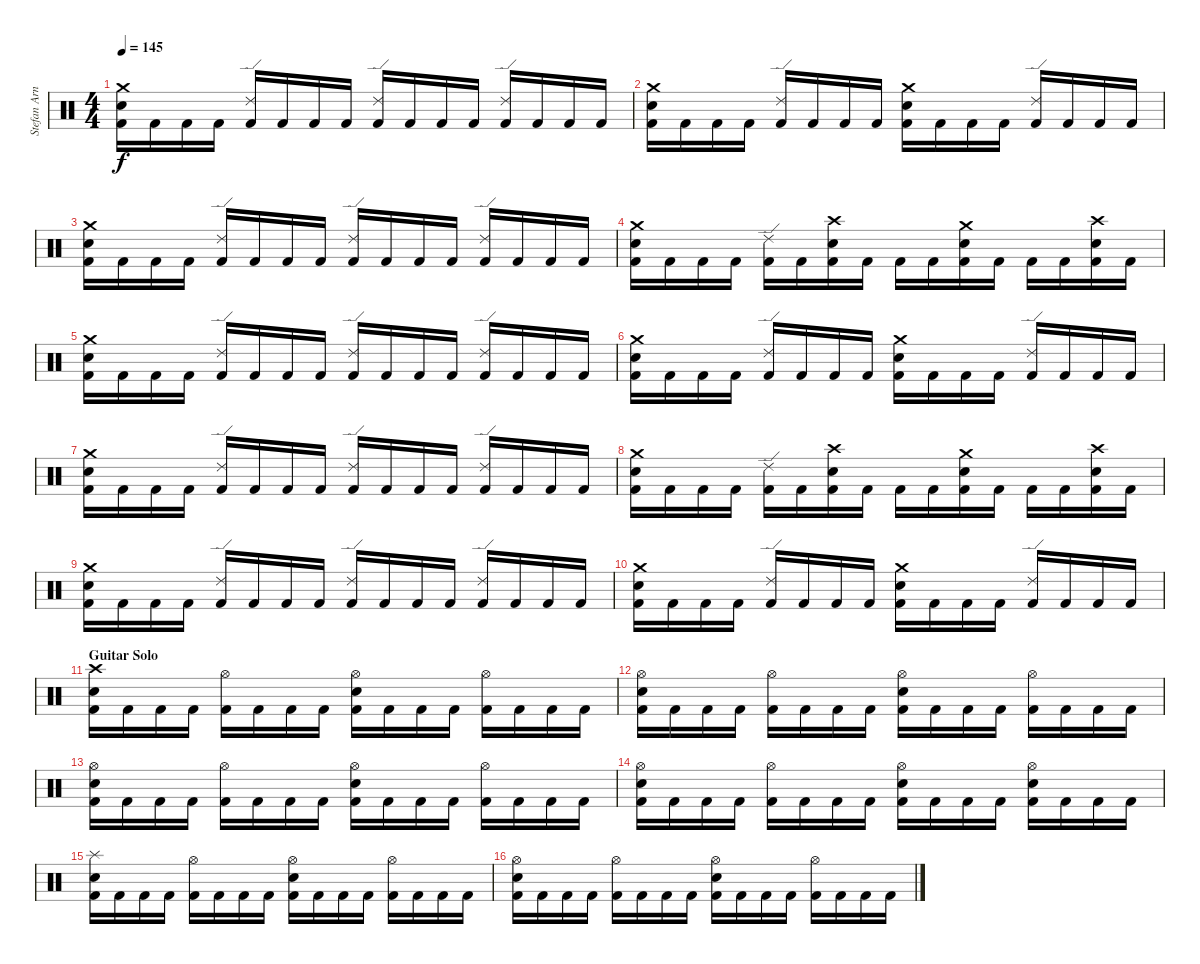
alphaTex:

\track ("Stefan Arnold" "Stefan Arn") {instrument percussion}
\staff {score}
\articulation defaults
\ts (4 4)
\tempo 145
\clef neutral
\ks c
("Crash medium (hit)" "Electric Snare (hit)" "Kick (hit) 2").16{dy f} "Kick (hit) 2".16 "Kick (hit) 2".16 "Kick (hit) 2".16 ("Ride (edge) 2" "Kick (hit) 2").16 "Kick (hit) 2".16 "Kick (hit) 2".16 "Kick (hit) 2".16 ("Ride (edge) 2" "Kick (hit) 2").16 "Kick (hit) 2".16 "Kick (hit) 2".16 "Kick (hit) 2".16 ("Ride (edge) 2" "Kick (hit) 2").16 "Kick (hit) 2".16 "Kick (hit) 2".16 "Kick (hit) 2".16 |
("Crash medium (hit)" "Electric Snare (hit)" "Kick (hit) 2").16 "Kick (hit) 2".16 "Kick (hit) 2".16 "Kick (hit) 2".16 ("Ride (edge) 2" "Kick (hit) 2").16 "Kick (hit) 2".16 "Kick (hit) 2".16 "Kick (hit) 2".16 ("Crash medium (hit)" "Electric Snare (hit)" "Kick (hit) 2").16 "Kick (hit) 2".16 "Kick (hit) 2".16 "Kick (hit) 2".16 ("Ride (edge) 2" "Kick (hit) 2").16 "Kick (hit) 2".16 "Kick (hit) 2".16 "Kick (hit) 2".16 |
("Crash medium (hit)" "Electric Snare (hit)" "Kick (hit) 2").16 "Kick (hit) 2".16 "Kick (hit) 2".16 "Kick (hit) 2".16 ("Ride (edge) 2" "Kick (hit) 2").16 "Kick (hit) 2".16 "Kick (hit) 2".16 "Kick (hit) 2".16 ("Ride (edge) 2" "Kick (hit) 2").16 "Kick (hit) 2".16 "Kick (hit) 2".16 "Kick (hit) 2".16 ("Ride (edge) 2" "Kick (hit) 2").16 "Kick (hit) 2".16 "Kick (hit) 2".16 "Kick (hit) 2".16 |
("Crash medium (hit)" "Electric Snare (hit)" "Kick (hit) 2").16 "Kick (hit) 2".16 "Kick (hit) 2".16 "Kick (hit) 2".16 ("Ride (edge) 2" "Kick (hit) 2").16 "Kick (hit) 2".16 ("Crash high (hit)" "Electric Snare (hit)" "Kick (hit) 2").16 "Kick (hit) 2".16 "Kick (hit) 2".16 "Kick (hit) 2".16 ("Crash medium (hit)" "Electric Snare (hit)" "Kick (hit) 2").16 "Kick (hit) 2".16 "Kick (hit) 2".16 "Kick (hit) 2".16 ("Crash high (hit)" "Electric Snare (hit)" "Kick (hit) 2").16 "Kick (hit) 2".16 |
("Crash medium (hit)" "Electric Snare (hit)" "Kick (hit) 2").16 "Kick (hit) 2".16 "Kick (hit) 2".16 "Kick (hit) 2".16 ("Ride (edge) 2" "Kick (hit) 2").16 "Kick (hit) 2".16 "Kick (hit) 2".16 "Kick (hit) 2".16 ("Ride (edge) 2" "Kick (hit) 2").16 "Kick (hit) 2".16 "Kick (hit) 2".16 "Kick (hit) 2".16 ("Ride (edge) 2" "Kick (hit) 2").16 "Kick (hit) 2".16 "Kick (hit) 2".16 "Kick (hit) 2".16 |
("Crash medium (hit)" "Electric Snare (hit)" "Kick (hit) 2").16 "Kick (hit) 2".16 "Kick (hit) 2".16 "Kick (hit) 2".16 ("Ride (edge) 2" "Kick (hit) 2").16 "Kick (hit) 2".16 "Kick (hit) 2".16 "Kick (hit) 2".16 ("Crash medium (hit)" "Electric Snare (hit)" "Kick (hit) 2").16 "Kick (hit) 2".16 "Kick (hit) 2".16 "Kick (hit) 2".16 ("Ride (edge) 2" "Kick (hit) 2").16 "Kick (hit) 2".16 "Kick (hit) 2".16 "Kick (hit) 2".16 |
("Crash medium (hit)" "Electric Snare (hit)" "Kick (hit) 2").16 "Kick (hit) 2".16 "Kick (hit) 2".16 "Kick (hit) 2".16 ("Ride (edge) 2" "Kick (hit) 2").16 "Kick (hit) 2".16 "Kick (hit) 2".16 "Kick (hit) 2".16 ("Ride (edge) 2" "Kick (hit) 2").16 "Kick (hit) 2".16 "Kick (hit) 2".16 "Kick (hit) 2".16 ("Ride (edge) 2" "Kick (hit) 2").16 "Kick (hit) 2".16 "Kick (hit) 2".16 "Kick (hit) 2".16 |
("Crash medium (hit)" "Electric Snare (hit)" "Kick (hit) 2").16 "Kick (hit) 2".16 "Kick (hit) 2".16 "Kick (hit) 2".16 ("Ride (edge) 2" "Kick (hit) 2").16 "Kick (hit) 2".16 ("Crash high (hit)" "Electric Snare (hit)" "Kick (hit) 2").16 "Kick (hit) 2".16 "Kick (hit) 2".16 "Kick (hit) 2".16 ("Crash medium (hit)" "Electric Snare (hit)" "Kick (hit) 2").16 "Kick (hit) 2".16 "Kick (hit) 2".16 "Kick (hit) 2".16 ("Crash high (hit)" "Electric Snare (hit)" "Kick (hit) 2").16 "Kick (hit) 2".16 |
("Crash medium (hit)" "Electric Snare (hit)" "Kick (hit) 2").16 "Kick (hit) 2".16 "Kick (hit) 2".16 "Kick (hit) 2".16 ("Ride (edge) 2" "Kick (hit) 2").16 "Kick (hit) 2".16 "Kick (hit) 2".16 "Kick (hit) 2".16 ("Ride (edge) 2" "Kick (hit) 2").16 "Kick (hit) 2".16 "Kick (hit) 2".16 "Kick (hit) 2".16 ("Ride (edge) 2" "Kick (hit) 2").16 "Kick (hit) 2".16 "Kick (hit) 2".16 "Kick (hit) 2".16 |
("Crash medium (hit)" "Electric Snare (hit)" "Kick (hit) 2").16 "Kick (hit) 2".16 "Kick (hit) 2".16 "Kick (hit) 2".16 ("Ride (edge) 2" "Kick (hit) 2").16 "Kick (hit) 2".16 "Kick (hit) 2".16 "Kick (hit) 2".16 ("Crash medium (hit)" "Electric Snare (hit)" "Kick (hit) 2").16 "Kick (hit) 2".16 "Kick (hit) 2".16 "Kick (hit) 2".16 ("Ride (edge) 2" "Kick (hit) 2").16 "Kick (hit) 2".16 "Kick (hit) 2".16 "Kick (hit) 2".16 |
\section ("" "Guitar Solo")
("Crash high (hit)" "Electric Snare (hit)" "Kick (hit) 2").16 "Kick (hit) 2".16 "Kick (hit) 2".16 "Kick (hit) 2".16 ("Hi-Hat (open)" "Kick (hit) 2").16 "Kick (hit) 2".16 "Kick (hit) 2".16 "Kick (hit) 2".16 ("Hi-Hat (open)" "Electric Snare (hit)" "Kick (hit) 2").16 "Kick (hit) 2".16 "Kick (hit) 2".16 "Kick (hit) 2".16 ("Hi-Hat (open)" "Kick (hit) 2").16 "Kick (hit) 2".16 "Kick (hit) 2".16 "Kick (hit) 2".16 |
("Hi-Hat (open)" "Electric Snare (hit)" "Kick (hit) 2").16 "Kick (hit) 2".16 "Kick (hit) 2".16 "Kick (hit) 2".16 ("Hi-Hat (open)" "Kick (hit) 2").16 "Kick (hit) 2".16 "Kick (hit) 2".16 "Kick (hit) 2".16 ("Hi-Hat (open)" "Electric Snare (hit)" "Kick (hit) 2").16 "Kick (hit) 2".16 "Kick (hit) 2".16 "Kick (hit) 2".16 ("Hi-Hat (open)" "Kick (hit) 2").16 "Kick (hit) 2".16 "Kick (hit) 2".16 "Kick (hit) 2".16 |
("Hi-Hat (open)" "Electric Snare (hit)" "Kick (hit) 2").16 "Kick (hit) 2".16 "Kick (hit) 2".16 "Kick (hit) 2".16 ("Hi-Hat (open)" "Kick (hit) 2").16 "Kick (hit) 2".16 "Kick (hit) 2".16 "Kick (hit) 2".16 ("Hi-Hat (open)" "Electric Snare (hit)" "Kick (hit) 2").16 "Kick (hit) 2".16 "Kick (hit) 2".16 "Kick (hit) 2".16 ("Hi-Hat (open)" "Kick (hit) 2").16 "Kick (hit) 2".16 "Kick (hit) 2".16 "Kick (hit) 2".16 |
("Hi-Hat (open)" "Electric Snare (hit)" "Kick (hit) 2").16 "Kick (hit) 2".16 "Kick (hit) 2".16 "Kick (hit) 2".16 ("Hi-Hat (open)" "Kick (hit) 2").16 "Kick (hit) 2".16 "Kick (hit) 2".16 "Kick (hit) 2".16 ("Hi-Hat (open)" "Electric Snare (hit)" "Kick (hit) 2").16 "Kick (hit) 2".16 "Kick (hit) 2".16 "Kick (hit) 2".16 ("Hi-Hat (open)" "Electric Snare (hit)" "Kick (hit) 2").16 "Kick (hit) 2".16 "Kick (hit) 2".16 "Kick (hit) 2".16 |
("Splash (hit)" "Electric Snare (hit)" "Kick (hit) 2").16 "Kick (hit) 2".16 "Kick (hit) 2".16 "Kick (hit) 2".16 ("Hi-Hat (open)" "Kick (hit) 2").16 "Kick (hit) 2".16 "Kick (hit) 2".16 "Kick (hit) 2".16 ("Hi-Hat (open)" "Electric Snare (hit)" "Kick (hit) 2").16 "Kick (hit) 2".16 "Kick (hit) 2".16 "Kick (hit) 2".16 ("Hi-Hat (open)" "Kick (hit) 2").16 "Kick (hit) 2".16 "Kick (hit) 2".16 "Kick (hit) 2".16 |
("Hi-Hat (open)" "Electric Snare (hit)" "Kick (hit) 2").16 "Kick (hit) 2".16 "Kick (hit) 2".16 "Kick (hit) 2".16 ("Hi-Hat (open)" "Kick (hit) 2").16 "Kick (hit) 2".16 "Kick (hit) 2".16 "Kick (hit) 2".16 ("Hi-Hat (open)" "Electric Snare (hit)" "Kick (hit) 2").16 "Kick (hit) 2".16 "Kick (hit) 2".16 "Kick (hit) 2".16 ("Hi-Hat (open)" "Kick (hit) 2").16 "Kick (hit) 2".16 "Kick (hit) 2".16 "Kick (hit) 2".16
